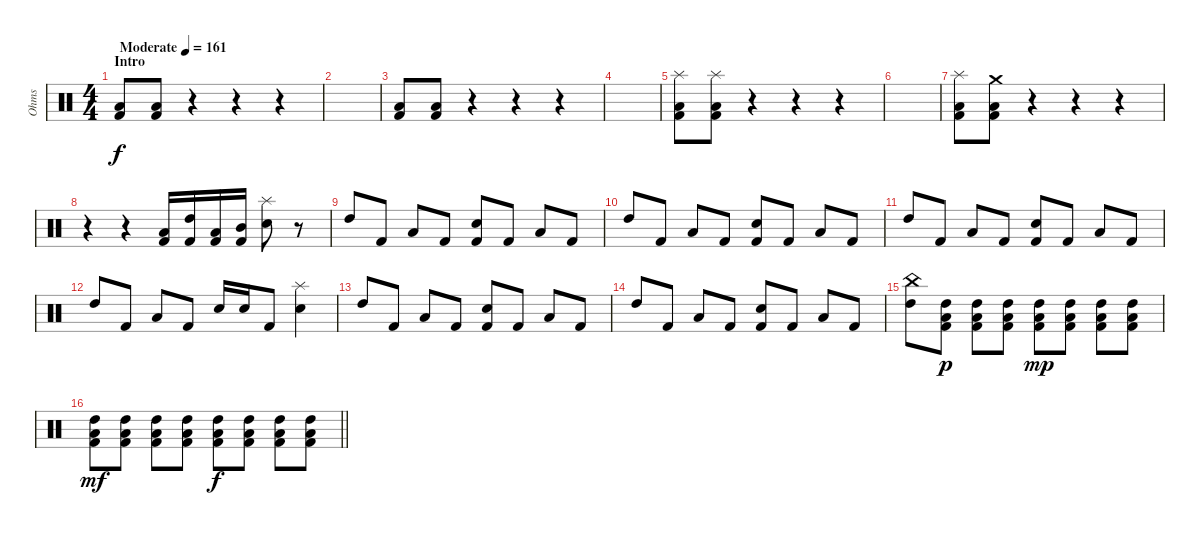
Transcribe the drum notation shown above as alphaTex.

\track ("Ohms" "Ohms") {instrument percussion}
\staff {score}
\articulation defaults
\ts (4 4)
\section ("" "Intro")
\tempo (161 "Moderate")
\clef neutral
\ks c
("Low Tom (hit)" "Kick (hit) 2").8{dy f} ("Low Tom (hit)" "Kick (hit) 2").8 r.4 r.4 r.4 |
|
("Low Tom (hit)" "Kick (hit) 2").8 ("Low Tom (hit)" "Kick (hit) 2").8 r.4 r.4 r.4 |
|
("Splash (hit)" "Low Tom (hit)" "Kick (hit) 2").8 ("Splash (hit)" "Low Tom (hit)" "Kick (hit) 2").8 r.4 r.4 r.4 |
|
("Splash (hit)" "Low Tom (hit)" "Kick (hit) 2").8 ("Crash medium (hit)" "Low Tom (hit)" "Kick (hit) 2").8 r.4 r.4 r.4 |
r.4 r.4 ("Low Tom (hit)" "Kick (hit) 2").16 ("High Tom (hit)" "Kick (hit) 2").16 ("Low Tom (hit)" "Kick (hit) 2").16 ("Mid Tom (hit)" "Kick (hit) 2").16 ("Splash (hit)" "Snare (hit) 2").8 r.8 |
"High Tom (hit)".8 "Kick (hit) 2".8 "Low Tom (hit)".8 "Kick (hit) 2".8 ("Snare (hit) 2" "Kick (hit) 2").8 "Kick (hit) 2".8 "Low Tom (hit)".8 "Kick (hit) 2".8 |
"High Tom (hit)".8 "Kick (hit) 2".8 "Low Tom (hit)".8 "Kick (hit) 2".8 ("Snare (hit) 2" "Kick (hit) 2").8 "Kick (hit) 2".8 "Low Tom (hit)".8 "Kick (hit) 2".8 |
"High Tom (hit)".8 "Kick (hit) 2".8 "Low Tom (hit)".8 "Kick (hit) 2".8 ("Snare (hit) 2" "Kick (hit) 2").8 "Kick (hit) 2".8 "Low Tom (hit)".8 "Kick (hit) 2".8 |
"High Tom (hit)".8 "Kick (hit) 2".8 "Low Tom (hit)".8 "Kick (hit) 2".8 "Snare (hit) 2".16 "Snare (hit) 2".16 "Kick (hit) 2".8 ("Splash (hit)" "Snare (hit) 2").4 |
"High Tom (hit)".8 "Kick (hit) 2".8 "Low Tom (hit)".8 "Kick (hit) 2".8 ("Snare (hit) 2" "Kick (hit) 2").8 "Kick (hit) 2".8 "Low Tom (hit)".8 "Kick (hit) 2".8 |
"High Tom (hit)".8 "Kick (hit) 2".8 "Low Tom (hit)".8 "Kick (hit) 2".8 ("Snare (hit) 2" "Kick (hit) 2").8 "Kick (hit) 2".8 "Low Tom (hit)".8 "Kick (hit) 2".8 |
("China (hit)" "High Tom (hit)").8 ("High Tom (hit)" "Low Tom (hit)" "Kick (hit) 2").8{dy p} ("High Tom (hit)" "Low Tom (hit)" "Kick (hit) 2").8 ("High Tom (hit)" "Low Tom (hit)" "Kick (hit) 2").8 ("High Tom (hit)" "Low Tom (hit)" "Kick (hit) 2").8{dy mp} ("High Tom (hit)" "Low Tom (hit)" "Kick (hit) 2").8 ("High Tom (hit)" "Low Tom (hit)" "Kick (hit) 2").8 ("High Tom (hit)" "Low Tom (hit)" "Kick (hit) 2").8 |
\barLineRight lightlight
("High Tom (hit)" "Low Tom (hit)" "Kick (hit) 2").8{dy mf} ("High Tom (hit)" "Low Tom (hit)" "Kick (hit) 2").8 ("High Tom (hit)" "Low Tom (hit)" "Kick (hit) 2").8 ("High Tom (hit)" "Low Tom (hit)" "Kick (hit) 2").8 ("High Tom (hit)" "Low Tom (hit)" "Kick (hit) 2").8{dy f} ("High Tom (hit)" "Low Tom (hit)" "Kick (hit) 2").8 ("High Tom (hit)" "Low Tom (hit)" "Kick (hit) 2").8 ("High Tom (hit)" "Low Tom (hit)" "Kick (hit) 2").8
